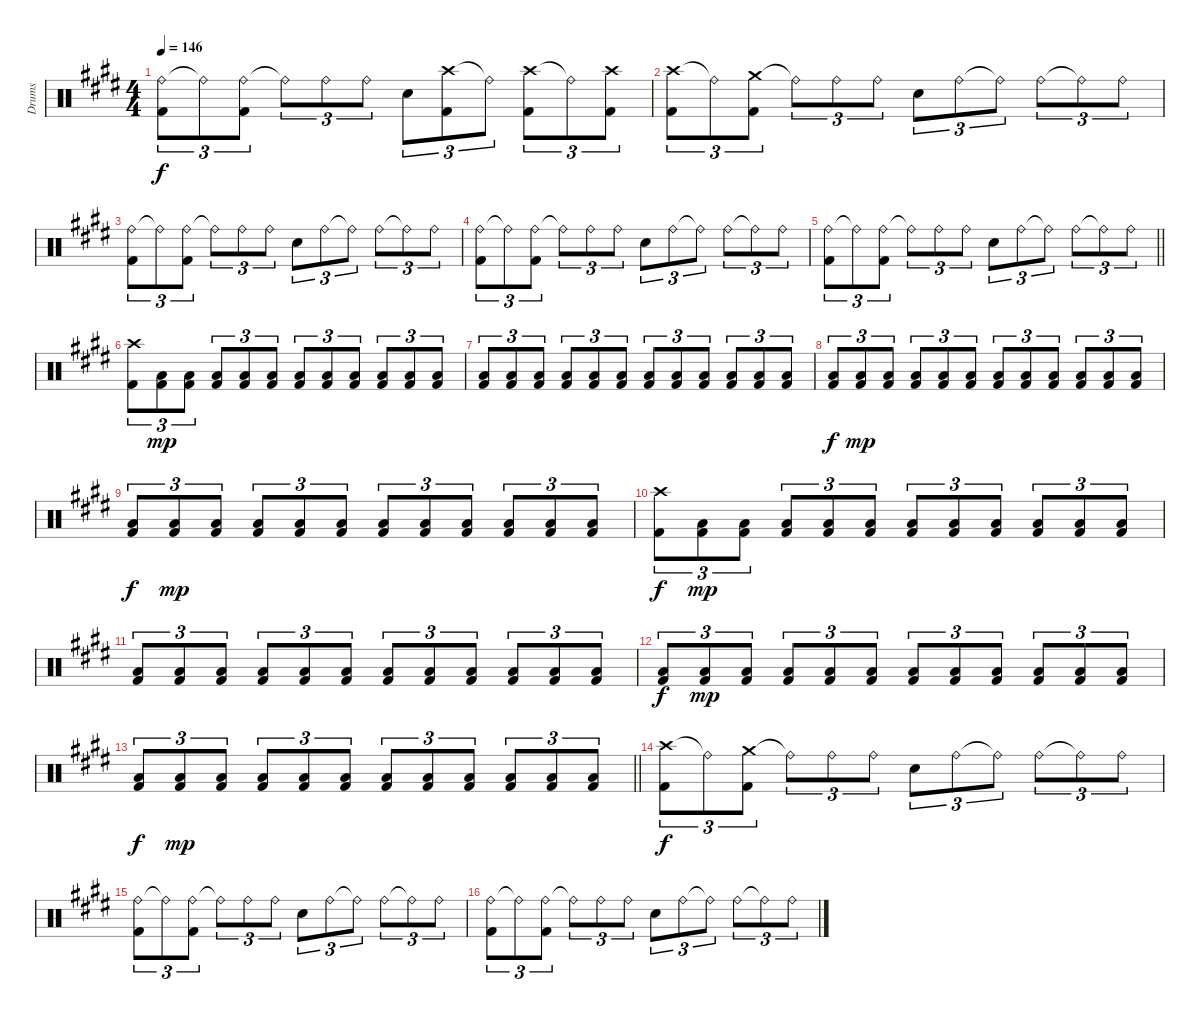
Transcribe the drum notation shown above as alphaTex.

\track ("Drums" "Drums") {instrument percussion}
\staff {score}
\articulation defaults
\ts (4 4)
\tempo 146
\clef neutral
\ks c#minor
("Ride (bell)" "Kick (hit) 2").8{tu (3 2) dy f} "Ride (bell)"{t}.8{tu (3 2)} ("Ride (bell)" "Kick (hit) 2").8{tu (3 2)} "Ride (bell)"{t}.8{tu (3 2)} "Ride (bell)".8{tu (3 2)} "Ride (bell)".8{tu (3 2)} "Snare (hit) 2".8{tu (3 2)} ("Crash high (hit)" "Kick (hit) 2").8{tu (3 2)} "Ride (bell)"{t}.8{tu (3 2)} ("Crash high (hit)" "Kick (hit) 2").8{tu (3 2)} "Ride (bell)"{t}.8{tu (3 2)} ("Crash high (hit)" "Kick (hit) 2").8{tu (3 2)} |
("Crash high (hit)" "Kick (hit) 2").8{tu (3 2)} "Ride (bell)"{t}.8{tu (3 2)} ("Crash medium (hit)" "Kick (hit) 2").8{tu (3 2)} "Ride (bell)"{t}.8{tu (3 2)} "Ride (bell)".8{tu (3 2)} "Ride (bell)".8{tu (3 2)} "Snare (hit) 2".8{tu (3 2)} "Ride (bell)".8{tu (3 2)} "Ride (bell)"{t}.8{tu (3 2)} "Ride (bell)".8{tu (3 2)} "Ride (bell)"{t}.8{tu (3 2)} "Ride (bell)".8{tu (3 2)} |
("Ride (bell)" "Kick (hit) 2").8{tu (3 2)} "Ride (bell)"{t}.8{tu (3 2)} ("Ride (bell)" "Kick (hit) 2").8{tu (3 2)} "Ride (bell)"{t}.8{tu (3 2)} "Ride (bell)".8{tu (3 2)} "Ride (bell)".8{tu (3 2)} "Snare (hit) 2".8{tu (3 2)} "Ride (bell)".8{tu (3 2)} "Ride (bell)"{t}.8{tu (3 2)} "Ride (bell)".8{tu (3 2)} "Ride (bell)"{t}.8{tu (3 2)} "Ride (bell)".8{tu (3 2)} |
("Ride (bell)" "Kick (hit) 2").8{tu (3 2)} "Ride (bell)"{t}.8{tu (3 2)} ("Ride (bell)" "Kick (hit) 2").8{tu (3 2)} "Ride (bell)"{t}.8{tu (3 2)} "Ride (bell)".8{tu (3 2)} "Ride (bell)".8{tu (3 2)} "Snare (hit) 2".8{tu (3 2)} "Ride (bell)".8{tu (3 2)} "Ride (bell)"{t}.8{tu (3 2)} "Ride (bell)".8{tu (3 2)} "Ride (bell)"{t}.8{tu (3 2)} "Ride (bell)".8{tu (3 2)} |
\barLineRight lightlight
("Ride (bell)" "Kick (hit) 2").8{tu (3 2)} "Ride (bell)"{t}.8{tu (3 2)} ("Ride (bell)" "Kick (hit) 2").8{tu (3 2)} "Ride (bell)"{t}.8{tu (3 2)} "Ride (bell)".8{tu (3 2)} "Ride (bell)".8{tu (3 2)} "Snare (hit) 2".8{tu (3 2)} "Ride (bell)".8{tu (3 2)} "Ride (bell)"{t}.8{tu (3 2)} "Ride (bell)".8{tu (3 2)} "Ride (bell)"{t}.8{tu (3 2)} "Ride (bell)".8{tu (3 2)} |
("Crash high (hit)" "Kick (hit) 2").8{tu (3 2)} ("Low Tom (hit)" "Kick (hit) 2").8{tu (3 2) dy mp} ("Low Tom (hit)" "Kick (hit) 2").8{tu (3 2)} ("Low Tom (hit)" "Kick (hit) 2").8{tu (3 2)} ("Low Tom (hit)" "Kick (hit) 2").8{tu (3 2)} ("Low Tom (hit)" "Kick (hit) 2").8{tu (3 2)} ("Low Tom (hit)" "Kick (hit) 2").8{tu (3 2)} ("Low Tom (hit)" "Kick (hit) 2").8{tu (3 2)} ("Low Tom (hit)" "Kick (hit) 2").8{tu (3 2)} ("Low Tom (hit)" "Kick (hit) 2").8{tu (3 2)} ("Low Tom (hit)" "Kick (hit) 2").8{tu (3 2)} ("Low Tom (hit)" "Kick (hit) 2").8{tu (3 2)} |
("Low Tom (hit)" "Kick (hit) 2").8{tu (3 2)} ("Low Tom (hit)" "Kick (hit) 2").8{tu (3 2)} ("Low Tom (hit)" "Kick (hit) 2").8{tu (3 2)} ("Low Tom (hit)" "Kick (hit) 2").8{tu (3 2)} ("Low Tom (hit)" "Kick (hit) 2").8{tu (3 2)} ("Low Tom (hit)" "Kick (hit) 2").8{tu (3 2)} ("Low Tom (hit)" "Kick (hit) 2").8{tu (3 2)} ("Low Tom (hit)" "Kick (hit) 2").8{tu (3 2)} ("Low Tom (hit)" "Kick (hit) 2").8{tu (3 2)} ("Low Tom (hit)" "Kick (hit) 2").8{tu (3 2)} ("Low Tom (hit)" "Kick (hit) 2").8{tu (3 2)} ("Low Tom (hit)" "Kick (hit) 2").8{tu (3 2)} |
("Low Tom (hit)" "Kick (hit) 2").8{tu (3 2) dy f} ("Low Tom (hit)" "Kick (hit) 2").8{tu (3 2) dy mp} ("Low Tom (hit)" "Kick (hit) 2").8{tu (3 2)} ("Low Tom (hit)" "Kick (hit) 2").8{tu (3 2)} ("Low Tom (hit)" "Kick (hit) 2").8{tu (3 2)} ("Low Tom (hit)" "Kick (hit) 2").8{tu (3 2)} ("Low Tom (hit)" "Kick (hit) 2").8{tu (3 2)} ("Low Tom (hit)" "Kick (hit) 2").8{tu (3 2)} ("Low Tom (hit)" "Kick (hit) 2").8{tu (3 2)} ("Low Tom (hit)" "Kick (hit) 2").8{tu (3 2)} ("Low Tom (hit)" "Kick (hit) 2").8{tu (3 2)} ("Low Tom (hit)" "Kick (hit) 2").8{tu (3 2)} |
("Low Tom (hit)" "Kick (hit) 2").8{tu (3 2) dy f} ("Low Tom (hit)" "Kick (hit) 2").8{tu (3 2) dy mp} ("Low Tom (hit)" "Kick (hit) 2").8{tu (3 2)} ("Low Tom (hit)" "Kick (hit) 2").8{tu (3 2)} ("Low Tom (hit)" "Kick (hit) 2").8{tu (3 2)} ("Low Tom (hit)" "Kick (hit) 2").8{tu (3 2)} ("Low Tom (hit)" "Kick (hit) 2").8{tu (3 2)} ("Low Tom (hit)" "Kick (hit) 2").8{tu (3 2)} ("Low Tom (hit)" "Kick (hit) 2").8{tu (3 2)} ("Low Tom (hit)" "Kick (hit) 2").8{tu (3 2)} ("Low Tom (hit)" "Kick (hit) 2").8{tu (3 2)} ("Low Tom (hit)" "Kick (hit) 2").8{tu (3 2)} |
("Crash high (hit)" "Kick (hit) 2").8{tu (3 2) dy f} ("Low Tom (hit)" "Kick (hit) 2").8{tu (3 2) dy mp} ("Low Tom (hit)" "Kick (hit) 2").8{tu (3 2)} ("Low Tom (hit)" "Kick (hit) 2").8{tu (3 2)} ("Low Tom (hit)" "Kick (hit) 2").8{tu (3 2)} ("Low Tom (hit)" "Kick (hit) 2").8{tu (3 2)} ("Low Tom (hit)" "Kick (hit) 2").8{tu (3 2)} ("Low Tom (hit)" "Kick (hit) 2").8{tu (3 2)} ("Low Tom (hit)" "Kick (hit) 2").8{tu (3 2)} ("Low Tom (hit)" "Kick (hit) 2").8{tu (3 2)} ("Low Tom (hit)" "Kick (hit) 2").8{tu (3 2)} ("Low Tom (hit)" "Kick (hit) 2").8{tu (3 2)} |
("Low Tom (hit)" "Kick (hit) 2").8{tu (3 2)} ("Low Tom (hit)" "Kick (hit) 2").8{tu (3 2)} ("Low Tom (hit)" "Kick (hit) 2").8{tu (3 2)} ("Low Tom (hit)" "Kick (hit) 2").8{tu (3 2)} ("Low Tom (hit)" "Kick (hit) 2").8{tu (3 2)} ("Low Tom (hit)" "Kick (hit) 2").8{tu (3 2)} ("Low Tom (hit)" "Kick (hit) 2").8{tu (3 2)} ("Low Tom (hit)" "Kick (hit) 2").8{tu (3 2)} ("Low Tom (hit)" "Kick (hit) 2").8{tu (3 2)} ("Low Tom (hit)" "Kick (hit) 2").8{tu (3 2)} ("Low Tom (hit)" "Kick (hit) 2").8{tu (3 2)} ("Low Tom (hit)" "Kick (hit) 2").8{tu (3 2)} |
("Low Tom (hit)" "Kick (hit) 2").8{tu (3 2) dy f} ("Low Tom (hit)" "Kick (hit) 2").8{tu (3 2) dy mp} ("Low Tom (hit)" "Kick (hit) 2").8{tu (3 2)} ("Low Tom (hit)" "Kick (hit) 2").8{tu (3 2)} ("Low Tom (hit)" "Kick (hit) 2").8{tu (3 2)} ("Low Tom (hit)" "Kick (hit) 2").8{tu (3 2)} ("Low Tom (hit)" "Kick (hit) 2").8{tu (3 2)} ("Low Tom (hit)" "Kick (hit) 2").8{tu (3 2)} ("Low Tom (hit)" "Kick (hit) 2").8{tu (3 2)} ("Low Tom (hit)" "Kick (hit) 2").8{tu (3 2)} ("Low Tom (hit)" "Kick (hit) 2").8{tu (3 2)} ("Low Tom (hit)" "Kick (hit) 2").8{tu (3 2)} |
\barLineRight lightlight
("Low Tom (hit)" "Kick (hit) 2").8{tu (3 2) dy f} ("Low Tom (hit)" "Kick (hit) 2").8{tu (3 2) dy mp} ("Low Tom (hit)" "Kick (hit) 2").8{tu (3 2)} ("Low Tom (hit)" "Kick (hit) 2").8{tu (3 2)} ("Low Tom (hit)" "Kick (hit) 2").8{tu (3 2)} ("Low Tom (hit)" "Kick (hit) 2").8{tu (3 2)} ("Low Tom (hit)" "Kick (hit) 2").8{tu (3 2)} ("Low Tom (hit)" "Kick (hit) 2").8{tu (3 2)} ("Low Tom (hit)" "Kick (hit) 2").8{tu (3 2)} ("Low Tom (hit)" "Kick (hit) 2").8{tu (3 2)} ("Low Tom (hit)" "Kick (hit) 2").8{tu (3 2)} ("Low Tom (hit)" "Kick (hit) 2").8{tu (3 2)} |
("Crash high (hit)" "Kick (hit) 2").8{tu (3 2) dy f} "Ride (bell)"{t}.8{tu (3 2)} ("Crash medium (hit)" "Kick (hit) 2").8{tu (3 2)} "Ride (bell)"{t}.8{tu (3 2)} "Ride (bell)".8{tu (3 2)} "Ride (bell)".8{tu (3 2)} "Snare (hit) 2".8{tu (3 2)} "Ride (bell)".8{tu (3 2)} "Ride (bell)"{t}.8{tu (3 2)} "Ride (bell)".8{tu (3 2)} "Ride (bell)"{t}.8{tu (3 2)} "Ride (bell)".8{tu (3 2)} |
("Ride (bell)" "Kick (hit) 2").8{tu (3 2)} "Ride (bell)"{t}.8{tu (3 2)} ("Ride (bell)" "Kick (hit) 2").8{tu (3 2)} "Ride (bell)"{t}.8{tu (3 2)} "Ride (bell)".8{tu (3 2)} "Ride (bell)".8{tu (3 2)} "Snare (hit) 2".8{tu (3 2)} "Ride (bell)".8{tu (3 2)} "Ride (bell)"{t}.8{tu (3 2)} "Ride (bell)".8{tu (3 2)} "Ride (bell)"{t}.8{tu (3 2)} "Ride (bell)".8{tu (3 2)} |
("Ride (bell)" "Kick (hit) 2").8{tu (3 2)} "Ride (bell)"{t}.8{tu (3 2)} ("Ride (bell)" "Kick (hit) 2").8{tu (3 2)} "Ride (bell)"{t}.8{tu (3 2)} "Ride (bell)".8{tu (3 2)} "Ride (bell)".8{tu (3 2)} "Snare (hit) 2".8{tu (3 2)} "Ride (bell)".8{tu (3 2)} "Ride (bell)"{t}.8{tu (3 2)} "Ride (bell)".8{tu (3 2)} "Ride (bell)"{t}.8{tu (3 2)} "Ride (bell)".8{tu (3 2)}
